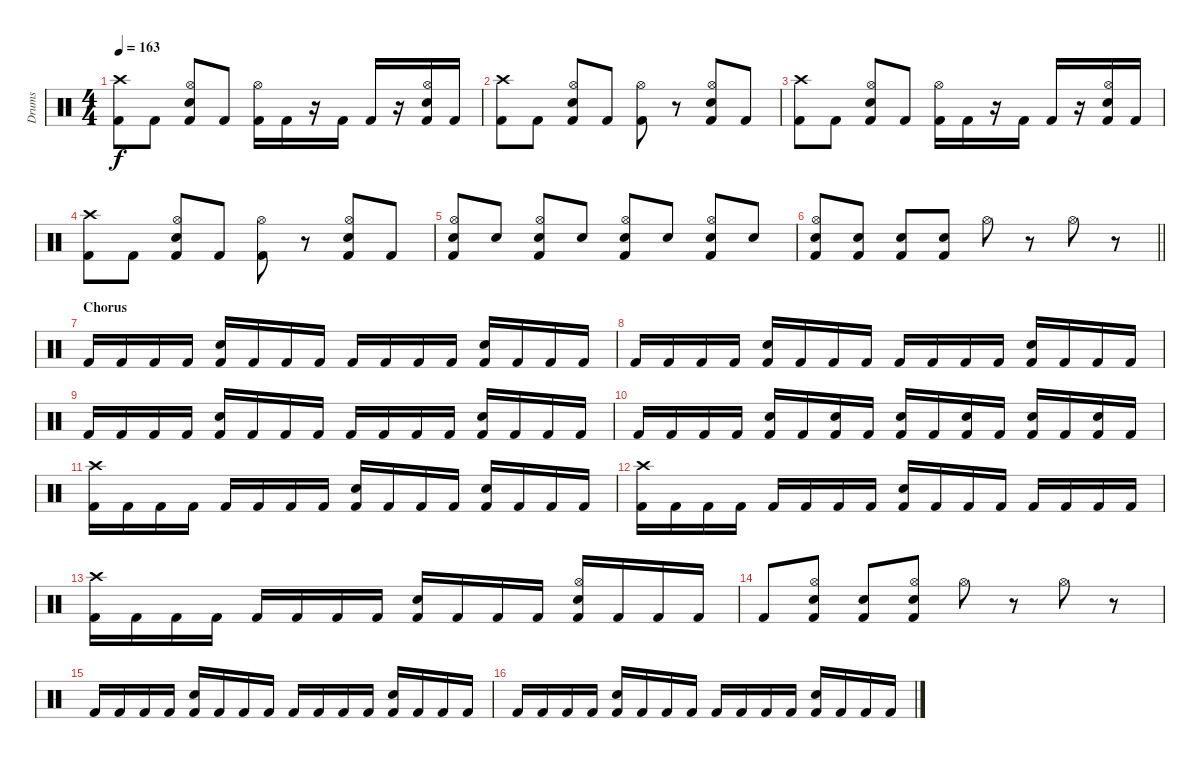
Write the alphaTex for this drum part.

\track ("Drums" "Drums") {instrument percussion}
\staff {score}
\articulation defaults
\ts (4 4)
\tempo 163
\clef neutral
\ks c
("Crash high (hit)" "Kick (hit) 2").8{dy f} "Kick (hit) 2".8 ("Hi-Hat (open)" "Kick (hit) 2" "Snare (hit) 2").8 "Kick (hit) 2".8 ("Hi-Hat (open)" "Kick (hit) 2").16 "Kick (hit) 2".16 r.16 "Kick (hit) 2".16 "Kick (hit) 2".16 r.16 ("Hi-Hat (open)" "Kick (hit) 2" "Snare (hit) 2").16 "Kick (hit) 2".16 |
("Crash high (hit)" "Kick (hit) 2").8 "Kick (hit) 2".8 ("Hi-Hat (open)" "Kick (hit) 2" "Snare (hit) 2").8 "Kick (hit) 2".8 ("Hi-Hat (open)" "Kick (hit) 2").8 r.8 ("Hi-Hat (open)" "Kick (hit) 2" "Snare (hit) 2").8 "Kick (hit) 2".8 |
("Crash high (hit)" "Kick (hit) 2").8 "Kick (hit) 2".8 ("Hi-Hat (open)" "Kick (hit) 2" "Snare (hit) 2").8 "Kick (hit) 2".8 ("Hi-Hat (open)" "Kick (hit) 2").16 "Kick (hit) 2".16 r.16 "Kick (hit) 2".16 "Kick (hit) 2".16 r.16 ("Hi-Hat (open)" "Kick (hit) 2" "Snare (hit) 2").16 "Kick (hit) 2".16 |
("Crash high (hit)" "Kick (hit) 2").8 "Kick (hit) 2".8 ("Hi-Hat (open)" "Kick (hit) 2" "Snare (hit) 2").8 "Kick (hit) 2".8 ("Hi-Hat (open)" "Kick (hit) 2").8 r.8 ("Hi-Hat (open)" "Kick (hit) 2" "Snare (hit) 2").8 "Kick (hit) 2".8 |
("Hi-Hat (open)" "Kick (hit) 2" "Snare (hit) 2").8 "Snare (hit)".8 ("Hi-Hat (open)" "Kick (hit) 2" "Snare (hit) 2").8 "Snare (hit)".8 ("Hi-Hat (open)" "Kick (hit) 2" "Snare (hit) 2").8 "Snare (hit)".8 ("Hi-Hat (open)" "Kick (hit) 2" "Snare (hit) 2").8 "Snare (hit)".8 |
\barLineRight lightlight
("Hi-Hat (open)" "Snare (hit) 2" "Kick (hit) 2").8 ("Snare (hit) 2" "Kick (hit) 2").8 ("Snare (hit) 2" "Kick (hit) 2").8 ("Snare (hit) 2" "Kick (hit) 2").8 "Hi-Hat (open)".8 r.8 "Hi-Hat (open)".8 r.8 |
\section ("" "Chorus")
"Kick (hit) 2".16 "Kick (hit) 2".16 "Kick (hit) 2".16 "Kick (hit) 2".16 ("Snare (hit) 2" "Kick (hit) 2").16 "Kick (hit) 2".16 "Kick (hit) 2".16 "Kick (hit) 2".16 "Kick (hit) 2".16 "Kick (hit) 2".16 "Kick (hit) 2".16 "Kick (hit) 2".16 ("Snare (hit) 2" "Kick (hit) 2").16 "Kick (hit) 2".16 "Kick (hit) 2".16 "Kick (hit) 2".16 |
"Kick (hit) 2".16 "Kick (hit) 2".16 "Kick (hit) 2".16 "Kick (hit) 2".16 ("Snare (hit) 2" "Kick (hit) 2").16 "Kick (hit) 2".16 "Kick (hit) 2".16 "Kick (hit) 2".16 "Kick (hit) 2".16 "Kick (hit) 2".16 "Kick (hit) 2".16 "Kick (hit) 2".16 ("Snare (hit) 2" "Kick (hit) 2").16 "Kick (hit) 2".16 "Kick (hit) 2".16 "Kick (hit) 2".16 |
"Kick (hit) 2".16 "Kick (hit) 2".16 "Kick (hit) 2".16 "Kick (hit) 2".16 ("Snare (hit) 2" "Kick (hit) 2").16 "Kick (hit) 2".16 "Kick (hit) 2".16 "Kick (hit) 2".16 "Kick (hit) 2".16 "Kick (hit) 2".16 "Kick (hit) 2".16 "Kick (hit) 2".16 ("Snare (hit) 2" "Kick (hit) 2").16 "Kick (hit) 2".16 "Kick (hit) 2".16 "Kick (hit) 2".16 |
"Kick (hit) 2".16 "Kick (hit) 2".16 "Kick (hit) 2".16 "Kick (hit) 2".16 ("Snare (hit) 2" "Kick (hit) 2").16 "Kick (hit) 2".16 ("Snare (hit) 2" "Kick (hit) 2").16 "Kick (hit) 2".16 ("Snare (hit) 2" "Kick (hit) 2").16 "Kick (hit) 2".16 ("Snare (hit) 2" "Kick (hit) 2").16 "Kick (hit) 2".16 ("Snare (hit) 2" "Kick (hit) 2").16 "Kick (hit) 2".16 ("Snare (hit) 2" "Kick (hit) 2").16 "Kick (hit) 2".16 |
("Crash high (hit)" "Kick (hit) 2").16 "Kick (hit) 2".16 "Kick (hit) 2".16 "Kick (hit) 2".16 "Kick (hit) 2".16 "Kick (hit) 2".16 "Kick (hit) 2".16 "Kick (hit) 2".16 ("Snare (hit) 2" "Kick (hit) 2").16 "Kick (hit) 2".16 "Kick (hit) 2".16 "Kick (hit) 2".16 ("Snare (hit) 2" "Kick (hit) 2").16 "Kick (hit) 2".16 "Kick (hit) 2".16 "Kick (hit) 2".16 |
("Crash high (hit)" "Kick (hit) 2").16 "Kick (hit) 2".16 "Kick (hit) 2".16 "Kick (hit) 2".16 "Kick (hit) 2".16 "Kick (hit) 2".16 "Kick (hit) 2".16 "Kick (hit) 2".16 ("Snare (hit) 2" "Kick (hit) 2").16 "Kick (hit) 2".16 "Kick (hit) 2".16 "Kick (hit) 2".16 "Kick (hit) 2".16 "Kick (hit) 2".16 "Kick (hit) 2".16 "Kick (hit) 2".16 |
("Crash high (hit)" "Kick (hit) 2").16 "Kick (hit) 2".16 "Kick (hit) 2".16 "Kick (hit) 2".16 "Kick (hit) 2".16 "Kick (hit) 2".16 "Kick (hit) 2".16 "Kick (hit) 2".16 ("Snare (hit) 2" "Kick (hit) 2").16 "Kick (hit) 2".16 "Kick (hit) 2".16 "Kick (hit) 2".16 ("Hi-Hat (open)" "Snare (hit) 2" "Kick (hit) 2").16 "Kick (hit) 2".16 "Kick (hit) 2".16 "Kick (hit) 2".16 |
"Kick (hit) 2".8 ("Hi-Hat (open)" "Snare (hit) 2" "Kick (hit) 2").8 ("Snare (hit) 2" "Kick (hit) 2").8 ("Hi-Hat (open)" "Snare (hit) 2" "Kick (hit) 2").8 "Hi-Hat (open)".8 r.8 "Hi-Hat (open)".8 r.8 |
"Kick (hit) 2".16 "Kick (hit) 2".16 "Kick (hit) 2".16 "Kick (hit) 2".16 ("Snare (hit) 2" "Kick (hit) 2").16 "Kick (hit) 2".16 "Kick (hit) 2".16 "Kick (hit) 2".16 "Kick (hit) 2".16 "Kick (hit) 2".16 "Kick (hit) 2".16 "Kick (hit) 2".16 ("Snare (hit) 2" "Kick (hit) 2").16 "Kick (hit) 2".16 "Kick (hit) 2".16 "Kick (hit) 2".16 |
"Kick (hit) 2".16 "Kick (hit) 2".16 "Kick (hit) 2".16 "Kick (hit) 2".16 ("Snare (hit) 2" "Kick (hit) 2").16 "Kick (hit) 2".16 "Kick (hit) 2".16 "Kick (hit) 2".16 "Kick (hit) 2".16 "Kick (hit) 2".16 "Kick (hit) 2".16 "Kick (hit) 2".16 ("Snare (hit) 2" "Kick (hit) 2").16 "Kick (hit) 2".16 "Kick (hit) 2".16 "Kick (hit) 2".16
